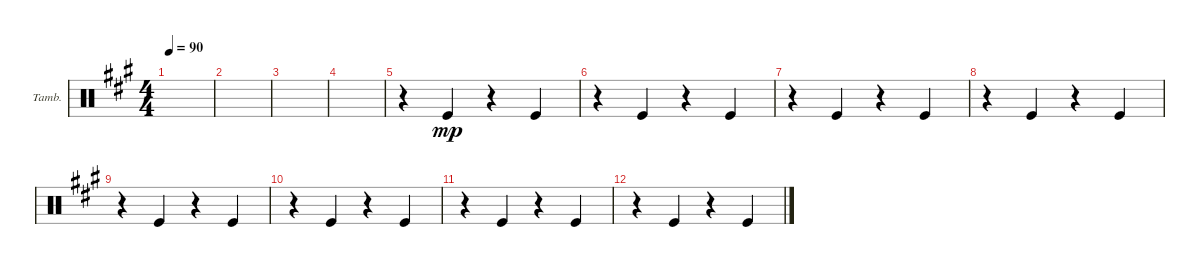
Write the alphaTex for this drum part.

\bracketExtendMode groupsimilarinstruments
\firstSystemTrackNameOrientation horizontal
\otherSystemsTrackNameOrientation horizontal
\track ("Tambourine" "Tamb.") {instrument percussion}
\staff {score}
\articulation defaults
\ts (4 4)
\tempo 90
\clef neutral
\ks f#minor
|
|
|
|
r.4 "Kick (hit)".4{dy mp} r.4 "Kick (hit)".4 |
r.4 "Kick (hit)".4 r.4 "Kick (hit)".4 |
r.4 "Kick (hit)".4 r.4 "Kick (hit)".4 |
r.4 "Kick (hit)".4 r.4 "Kick (hit)".4 |
r.4 "Kick (hit)".4 r.4 "Kick (hit)".4 |
r.4 "Kick (hit)".4 r.4 "Kick (hit)".4 |
r.4 "Kick (hit)".4 r.4 "Kick (hit)".4 |
r.4 "Kick (hit)".4 r.4 "Kick (hit)".4
